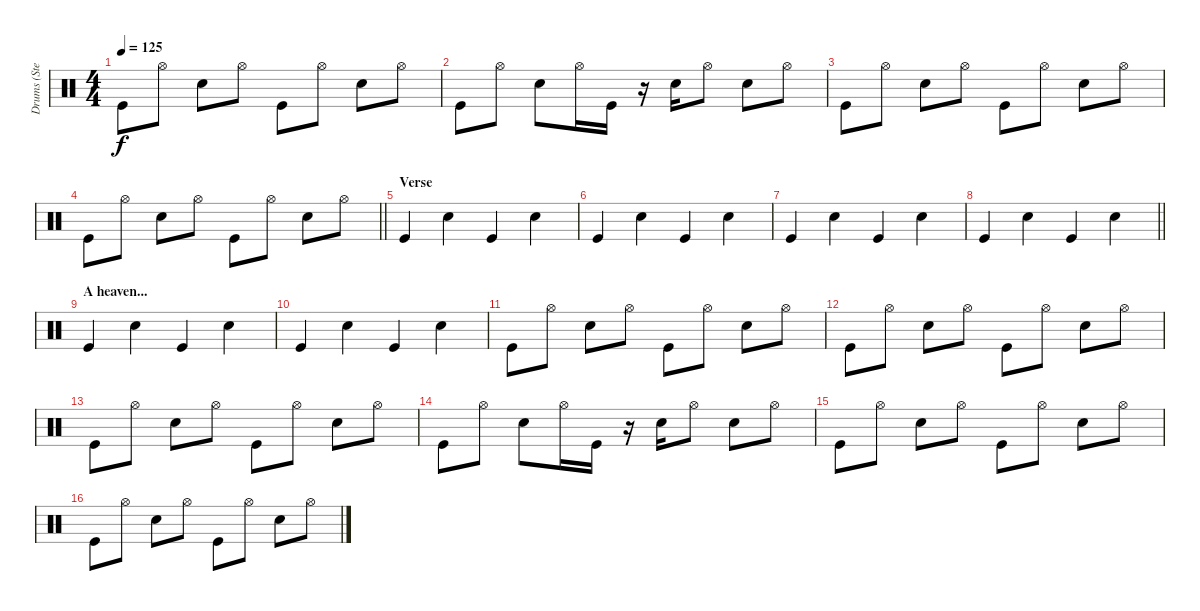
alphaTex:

\track ("Drums (Steve)" "Drums (Ste") {instrument percussion}
\staff {score}
\articulation defaults
\ts (4 4)
\tempo 125
\clef neutral
\ks c "Kick (hit)".8{dy f} "Hi-Hat (open)".8 "Electric Snare (hit)".8 "Hi-Hat (open)".8 "Kick (hit)".8 "Hi-Hat (open)".8 "Electric Snare (hit)".8 "Hi-Hat (open)".8
|
"Kick (hit)".8 "Hi-Hat (open)".8 "Electric Snare (hit)".8 "Hi-Hat (open)".16 "Kick (hit)".16 r.16 "Electric Snare (hit)".16 "Hi-Hat (open)".8 "Electric Snare (hit)".8 "Hi-Hat (open)".8 |
"Kick (hit)".8 "Hi-Hat (open)".8 "Electric Snare (hit)".8 "Hi-Hat (open)".8 "Kick (hit)".8 "Hi-Hat (open)".8 "Electric Snare (hit)".8 "Hi-Hat (open)".8 |
\barLineRight lightlight "Kick (hit)".8 "Hi-Hat (open)".8 "Electric Snare (hit)".8 "Hi-Hat (open)".8 "Kick (hit)".8 "Hi-Hat (open)".8 "Electric Snare (hit)".8 "Hi-Hat (open)".8
|
\section ("" "Verse")
"Kick (hit)".4 "Electric Snare (hit)".4 "Kick (hit)".4 "Electric Snare (hit)".4 |
"Kick (hit)".4 "Electric Snare (hit)".4 "Kick (hit)".4 "Electric Snare (hit)".4 |
"Kick (hit)".4 "Electric Snare (hit)".4 "Kick (hit)".4 "Electric Snare (hit)".4 |
\barLineRight lightlight "Kick (hit)".4 "Electric Snare (hit)".4 "Kick (hit)".4 "Electric Snare (hit)".4
|
\section ("" "A heaven...")
"Kick (hit)".4 "Electric Snare (hit)".4 "Kick (hit)".4 "Electric Snare (hit)".4 |
"Kick (hit)".4 "Electric Snare (hit)".4 "Kick (hit)".4 "Electric Snare (hit)".4 |
"Kick (hit)".8 "Hi-Hat (open)".8 "Electric Snare (hit)".8 "Hi-Hat (open)".8 "Kick (hit)".8 "Hi-Hat (open)".8 "Electric Snare (hit)".8 "Hi-Hat (open)".8 |
"Kick (hit)".8 "Hi-Hat (open)".8 "Electric Snare (hit)".8 "Hi-Hat (open)".8 "Kick (hit)".8 "Hi-Hat (open)".8 "Electric Snare (hit)".8 "Hi-Hat (open)".8 |
"Kick (hit)".8 "Hi-Hat (open)".8 "Electric Snare (hit)".8 "Hi-Hat (open)".8 "Kick (hit)".8 "Hi-Hat (open)".8 "Electric Snare (hit)".8 "Hi-Hat (open)".8 |
"Kick (hit)".8 "Hi-Hat (open)".8 "Electric Snare (hit)".8 "Hi-Hat (open)".16 "Kick (hit)".16 r.16 "Electric Snare (hit)".16 "Hi-Hat (open)".8 "Electric Snare (hit)".8 "Hi-Hat (open)".8 |
"Kick (hit)".8 "Hi-Hat (open)".8 "Electric Snare (hit)".8 "Hi-Hat (open)".8 "Kick (hit)".8 "Hi-Hat (open)".8 "Electric Snare (hit)".8 "Hi-Hat (open)".8 |
"Kick (hit)".8 "Hi-Hat (open)".8 "Electric Snare (hit)".8 "Hi-Hat (open)".8 "Kick (hit)".8 "Hi-Hat (open)".8 "Electric Snare (hit)".8 "Hi-Hat (open)".8
